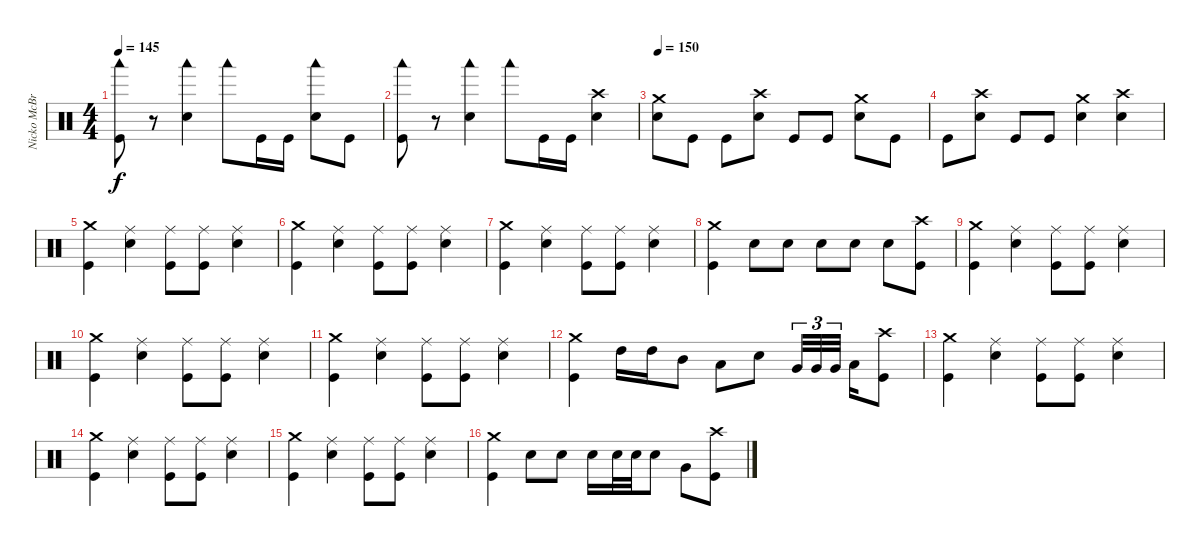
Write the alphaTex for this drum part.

\track ("Nicko McBrain" "Nicko McBr") {instrument percussion}
\staff {score}
\articulation defaults
\ts (4 4)
\tempo 145
\clef neutral
\ks c
("Woodblock low (hit)" "Kick (hit)").8{dy f} r.8 ("Woodblock low (hit)" "Electric Snare (hit)").4 "Woodblock low (hit)".8 "Kick (hit)".16 "Kick (hit)".16 ("Woodblock low (hit)" "Electric Snare (hit)").8 "Kick (hit)".8 |
("Woodblock low (hit)" "Kick (hit)").8 r.8 ("Woodblock low (hit)" "Electric Snare (hit)").4 "Woodblock low (hit)".8 "Kick (hit)".16 "Kick (hit)".16 ("Crash high (hit)" "Electric Snare (hit)").4 |
\tempo 150
("Crash medium (hit)" "Electric Snare (hit)").8 "Kick (hit)".8 "Kick (hit)".8 ("Crash high (hit)" "Electric Snare (hit)").8 "Kick (hit)".8 "Kick (hit)".8 ("Crash medium (hit)" "Electric Snare (hit)").8 "Kick (hit)".8 |
"Kick (hit)".8 ("Crash high (hit)" "Electric Snare (hit)").8 "Kick (hit)".8 "Kick (hit)".8 ("Crash medium (hit)" "Electric Snare (hit)").4 ("Crash high (hit)" "Electric Snare (hit)").4 |
("Kick (hit)" "Crash medium (hit)").4 ("Electric Snare (hit)" "Ride (middle)").4 ("Kick (hit)" "Ride (middle)").8 ("Kick (hit)" "Ride (middle)").8 ("Electric Snare (hit)" "Ride (middle)").4 |
("Kick (hit)" "Crash medium (hit)").4 ("Electric Snare (hit)" "Ride (middle)").4 ("Kick (hit)" "Ride (middle)").8 ("Kick (hit)" "Ride (middle)").8 ("Electric Snare (hit)" "Ride (middle)").4 |
("Kick (hit)" "Crash medium (hit)").4 ("Electric Snare (hit)" "Ride (middle)").4 ("Kick (hit)" "Ride (middle)").8 ("Kick (hit)" "Ride (middle)").8 ("Electric Snare (hit)" "Ride (middle)").4 |
("Kick (hit)" "Crash medium (hit)").4 "Electric Snare (hit)".8 "Electric Snare (hit)".8 "Electric Snare (hit)".8 "Electric Snare (hit)".8 "Electric Snare (hit)".8 ("Kick (hit)" "Crash high (hit)").8 |
("Kick (hit)" "Crash medium (hit)").4 ("Electric Snare (hit)" "Ride (middle)").4 ("Kick (hit)" "Ride (middle)").8 ("Kick (hit)" "Ride (middle)").8 ("Electric Snare (hit)" "Ride (middle)").4 |
("Kick (hit)" "Crash medium (hit)").4 ("Electric Snare (hit)" "Ride (middle)").4 ("Kick (hit)" "Ride (middle)").8 ("Kick (hit)" "Ride (middle)").8 ("Electric Snare (hit)" "Ride (middle)").4 |
("Kick (hit)" "Crash medium (hit)").4 ("Electric Snare (hit)" "Ride (middle)").4 ("Kick (hit)" "Ride (middle)").8 ("Kick (hit)" "Ride (middle)").8 ("Electric Snare (hit)" "Ride (middle)").4 |
("Kick (hit)" "Crash medium (hit)").4 "High Tom (hit)".16 "High Tom (hit)".16 "Mid Tom (hit)".8 "Low Tom (hit)".8 "Electric Snare (hit)".8 "Very Low Tom (hit)".32{tu (3 2)} "Very Low Tom (hit)".32{tu (3 2)} "Very Low Tom (hit)".32{tu (3 2)} "Low Floor Tom (hit)".16 ("Kick (hit)" "Crash high (hit)").8 |
("Kick (hit)" "Crash medium (hit)").4 ("Electric Snare (hit)" "Ride (middle)").4 ("Kick (hit)" "Ride (middle)").8 ("Kick (hit)" "Ride (middle)").8 ("Electric Snare (hit)" "Ride (middle)").4 |
("Kick (hit)" "Crash medium (hit)").4 ("Electric Snare (hit)" "Ride (middle)").4 ("Kick (hit)" "Ride (middle)").8 ("Kick (hit)" "Ride (middle)").8 ("Electric Snare (hit)" "Ride (middle)").4 |
("Kick (hit)" "Crash medium (hit)").4 ("Electric Snare (hit)" "Ride (middle)").4 ("Kick (hit)" "Ride (middle)").8 ("Kick (hit)" "Ride (middle)").8 ("Electric Snare (hit)" "Ride (middle)").4 |
("Kick (hit)" "Crash medium (hit)").4 "Electric Snare (hit)".8 "Electric Snare (hit)".8 "Electric Snare (hit)".16 "Electric Snare (hit)".32 "Electric Snare (hit)".32 "Electric Snare (hit)".8 "Very Low Tom (hit)".8 ("Kick (hit)" "Crash high (hit)").8
